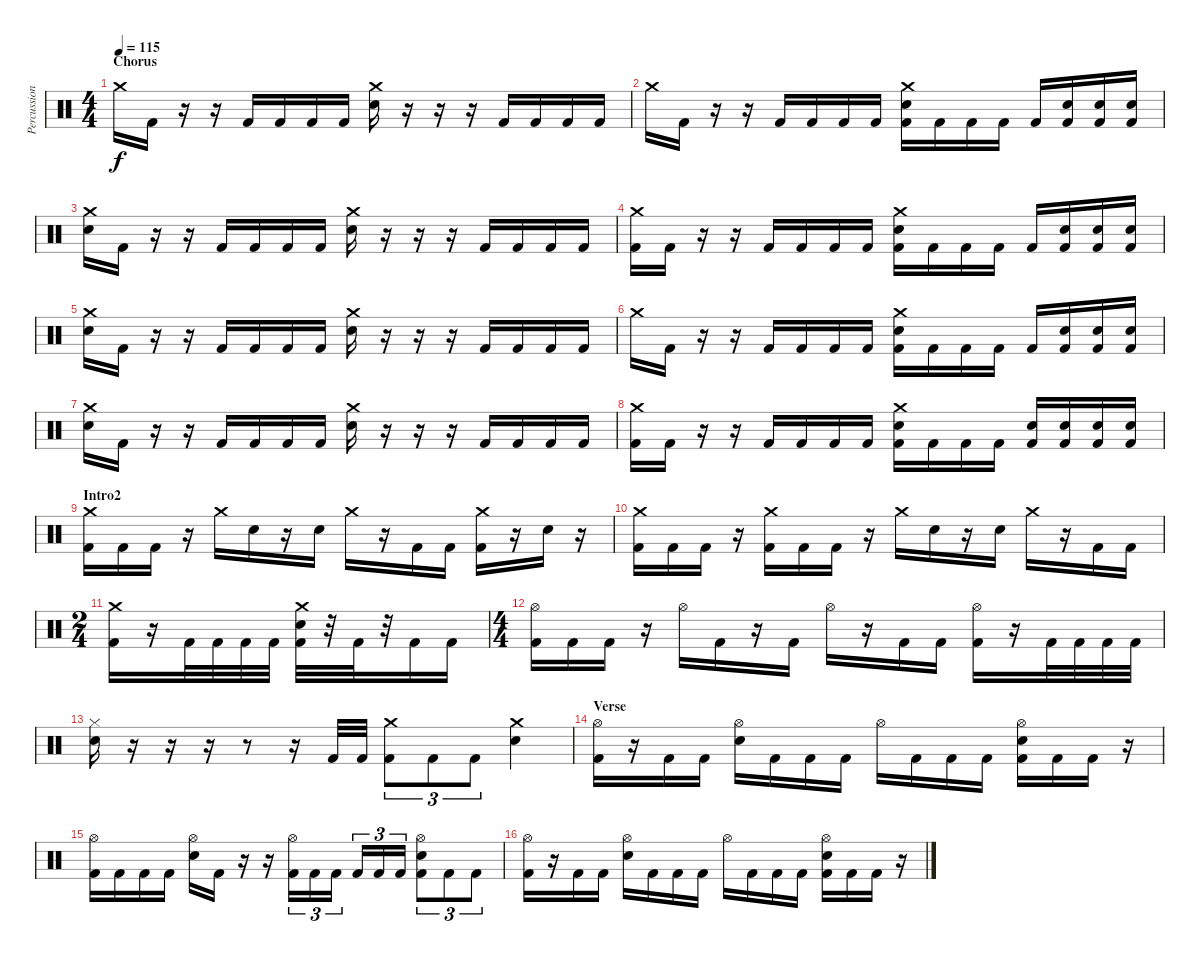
\track ("Percussion" "Percussion") {instrument percussion}
\staff {score}
\articulation defaults
\ts (4 4)
\section ("" "Chorus")
\tempo 115
\clef neutral
\ks c "Crash medium (hit)".16{dy f} "Kick (hit) 2".16
r.16 r.16 "Kick (hit) 2".16 "Kick (hit) 2".16 "Kick (hit) 2".16 "Kick (hit) 2".16 ("Crash medium (hit)" "Electric Snare (hit)").16 r.16 r.16 r.16 "Kick (hit) 2".16 "Kick (hit) 2".16 "Kick (hit) 2".16 "Kick (hit) 2".16 |
"Crash medium (hit)".16 "Kick (hit) 2".16 r.16 r.16 "Kick (hit) 2".16 "Kick (hit) 2".16 "Kick (hit) 2".16 "Kick (hit) 2".16 ("Crash medium (hit)" "Electric Snare (hit)" "Kick (hit) 2").16 "Kick (hit) 2".16 "Kick (hit) 2".16 "Kick (hit) 2".16 "Kick (hit) 2".16 ("Electric Snare (hit)" "Kick (hit) 2").16 ("Electric Snare (hit)" "Kick (hit) 2").16 ("Electric Snare (hit)" "Kick (hit) 2").16 |
("Crash medium (hit)" "Electric Snare (hit)").16 "Kick (hit) 2".16 r.16 r.16 "Kick (hit) 2".16 "Kick (hit) 2".16 "Kick (hit) 2".16 "Kick (hit) 2".16 ("Crash medium (hit)" "Electric Snare (hit)").16 r.16 r.16 r.16 "Kick (hit) 2".16 "Kick (hit) 2".16 "Kick (hit) 2".16 "Kick (hit) 2".16 |
("Crash medium (hit)" "Kick (hit) 2").16 "Kick (hit) 2".16 r.16 r.16 "Kick (hit) 2".16 "Kick (hit) 2".16 "Kick (hit) 2".16 "Kick (hit) 2".16 ("Crash medium (hit)" "Electric Snare (hit)" "Kick (hit) 2").16 "Kick (hit) 2".16 "Kick (hit) 2".16 "Kick (hit) 2".16 "Kick (hit) 2".16 ("Electric Snare (hit)" "Kick (hit) 2").16 ("Electric Snare (hit)" "Kick (hit) 2").16 ("Electric Snare (hit)" "Kick (hit) 2").16 |
("Crash medium (hit)" "Electric Snare (hit)").16 "Kick (hit) 2".16 r.16 r.16 "Kick (hit) 2".16 "Kick (hit) 2".16 "Kick (hit) 2".16 "Kick (hit) 2".16 ("Crash medium (hit)" "Electric Snare (hit)").16 r.16 r.16 r.16 "Kick (hit) 2".16 "Kick (hit) 2".16 "Kick (hit) 2".16 "Kick (hit) 2".16 |
"Crash medium (hit)".16 "Kick (hit) 2".16 r.16 r.16 "Kick (hit) 2".16 "Kick (hit) 2".16 "Kick (hit) 2".16 "Kick (hit) 2".16 ("Crash medium (hit)" "Electric Snare (hit)" "Kick (hit) 2").16 "Kick (hit) 2".16 "Kick (hit) 2".16 "Kick (hit) 2".16 "Kick (hit) 2".16 ("Electric Snare (hit)" "Kick (hit) 2").16 ("Electric Snare (hit)" "Kick (hit) 2").16 ("Electric Snare (hit)" "Kick (hit) 2").16 |
("Crash medium (hit)" "Electric Snare (hit)").16 "Kick (hit) 2".16 r.16 r.16 "Kick (hit) 2".16 "Kick (hit) 2".16 "Kick (hit) 2".16 "Kick (hit) 2".16 ("Crash medium (hit)" "Electric Snare (hit)").16 r.16 r.16 r.16 "Kick (hit) 2".16 "Kick (hit) 2".16 "Kick (hit) 2".16 "Kick (hit) 2".16 |
("Crash medium (hit)" "Kick (hit) 2").16 "Kick (hit) 2".16 r.16 r.16 "Kick (hit) 2".16 "Kick (hit) 2".16 "Kick (hit) 2".16 "Kick (hit) 2".16 ("Crash medium (hit)" "Electric Snare (hit)" "Kick (hit) 2").16 "Kick (hit) 2".16 "Kick (hit) 2".16 "Kick (hit) 2".16 ("Electric Snare (hit)" "Kick (hit) 2").16 ("Electric Snare (hit)" "Kick (hit) 2").16 ("Electric Snare (hit)" "Kick (hit) 2").16 ("Electric Snare (hit)" "Kick (hit) 2").16 |
\section ("" "Intro2")
("Crash medium (hit)" "Kick (hit) 2").16 "Kick (hit) 2".16 "Kick (hit) 2".16 r.16 "Crash medium (hit)".16 "Electric Snare (hit)".16 r.16 "Electric Snare (hit)".16 "Crash medium (hit)".16 r.16 "Kick (hit) 2".16 "Kick (hit) 2".16 ("Crash medium (hit)" "Kick (hit) 2").16 r.16 "Electric Snare (hit)".16 r.16 |
("Crash medium (hit)" "Kick (hit) 2").16 "Kick (hit) 2".16 "Kick (hit) 2".16 r.16 ("Crash medium (hit)" "Kick (hit) 2").16 "Kick (hit) 2".16 "Kick (hit) 2".16 r.16 "Crash medium (hit)".16 "Electric Snare (hit)".16 r.16 "Electric Snare (hit)".16 "Crash medium (hit)".16 r.16 "Kick (hit) 2".16 "Kick (hit) 2".16 |
\ts (2 4)
("Crash medium (hit)" "Kick (hit) 2").16 r.16 "Kick (hit) 2".32 "Kick (hit) 2".32 "Kick (hit) 2".32 "Kick (hit) 2".32 ("Crash medium (hit)" "Electric Snare (hit)" "Kick (hit) 2").32 r.32 "Kick (hit) 2".32 r.32 "Kick (hit) 2".16 "Kick (hit) 2".16 |
\ts (4 4)
("Hi-Hat (open)" "Kick (hit) 2").16 "Kick (hit) 2".16 "Kick (hit) 2".16 r.16 "Hi-Hat (open)".16 "Kick (hit) 2".16 r.16 "Kick (hit) 2".16 "Hi-Hat (open)".16 r.16 "Kick (hit) 2".16 "Kick (hit) 2".16 ("Hi-Hat (open)" "Kick (hit) 2").16 r.16 "Kick (hit) 2".32 "Kick (hit) 2".32 "Kick (hit) 2".32 "Kick (hit) 2".32 |
("Hi-Hat (closed)" "Electric Snare (hit)").16 r.16 r.16 r.16 r.8 r.16 "Kick (hit) 2".32 "Kick (hit) 2".32 ("Crash medium (hit)" "Kick (hit) 2").8{tu (3 2)} "Kick (hit) 2".8{tu (3 2)} "Kick (hit) 2".8{tu (3 2)} ("Crash medium (hit)" "Electric Snare (hit)").4 |
\section ("" "Verse")
("Hi-Hat (open)" "Kick (hit) 2").16 r.16 "Kick (hit) 2".16 "Kick (hit) 2".16 ("Hi-Hat (open)" "Electric Snare (hit)").16 "Kick (hit) 2".16 "Kick (hit) 2".16 "Kick (hit) 2".16 "Hi-Hat (open)".16 "Kick (hit) 2".16 "Kick (hit) 2".16 "Kick (hit) 2".16 ("Hi-Hat (open)" "Electric Snare (hit)" "Kick (hit) 2").16 "Kick (hit) 2".16 "Kick (hit) 2".16 r.16 |
("Hi-Hat (open)" "Kick (hit) 2").16 "Kick (hit) 2".16 "Kick (hit) 2".16 "Kick (hit) 2".16 ("Hi-Hat (open)" "Electric Snare (hit)").16 "Kick (hit) 2".16 r.16 r.16 ("Hi-Hat (open)" "Kick (hit) 2").16{tu (3 2)} "Kick (hit) 2".16{tu (3 2)} "Kick (hit) 2".16{tu (3 2)} "Kick (hit) 2".16{tu (3 2)} "Kick (hit) 2".16{tu (3 2)} "Kick (hit) 2".16{tu (3 2)} ("Hi-Hat (open)" "Electric Snare (hit)" "Kick (hit) 2").8{tu (3 2)} "Kick (hit) 2".8{tu (3 2)} "Kick (hit) 2".8{tu (3 2)} |
("Hi-Hat (open)" "Kick (hit) 2").16 r.16 "Kick (hit) 2".16 "Kick (hit) 2".16 ("Hi-Hat (open)" "Electric Snare (hit)").16 "Kick (hit) 2".16 "Kick (hit) 2".16 "Kick (hit) 2".16 "Hi-Hat (open)".16 "Kick (hit) 2".16 "Kick (hit) 2".16 "Kick (hit) 2".16 ("Hi-Hat (open)" "Electric Snare (hit)" "Kick (hit) 2").16 "Kick (hit) 2".16 "Kick (hit) 2".16 r.16
